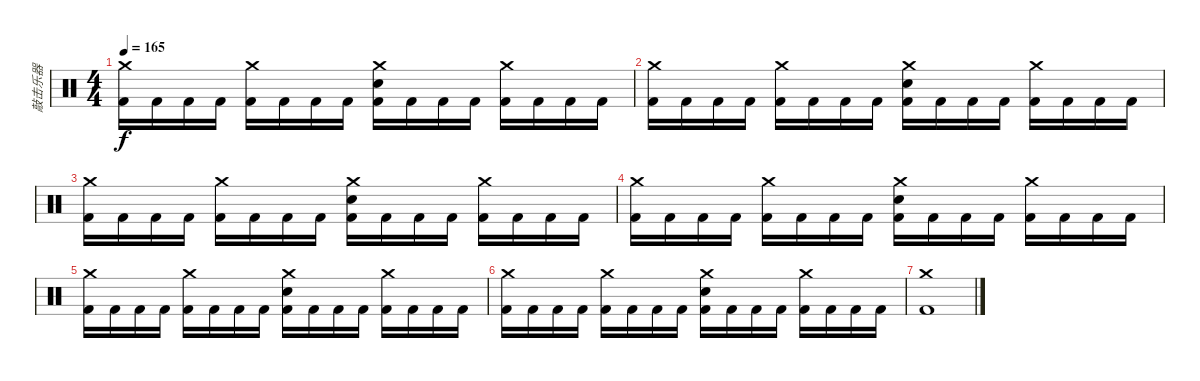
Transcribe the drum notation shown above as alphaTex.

\track ("敲击乐器" "敲击乐器") {instrument percussion}
\staff {score}
\articulation defaults
\ts (4 4)
\tempo 165
\clef neutral
\ks c
("Crash medium (hit)" "Kick (hit) 2").16{dy f} "Kick (hit) 2".16 "Kick (hit) 2".16 "Kick (hit) 2".16 ("Crash medium (hit)" "Kick (hit) 2").16 "Kick (hit) 2".16 "Kick (hit) 2".16 "Kick (hit) 2".16 ("Crash medium (hit)" "Kick (hit) 2" "Snare (hit) 2").16 "Kick (hit) 2".16 "Kick (hit) 2".16 "Kick (hit) 2".16 ("Crash medium (hit)" "Kick (hit) 2").16 "Kick (hit) 2".16 "Kick (hit) 2".16 "Kick (hit) 2".16 |
("Crash medium (hit)" "Kick (hit) 2").16 "Kick (hit) 2".16 "Kick (hit) 2".16 "Kick (hit) 2".16 ("Crash medium (hit)" "Kick (hit) 2").16 "Kick (hit) 2".16 "Kick (hit) 2".16 "Kick (hit) 2".16 ("Crash medium (hit)" "Kick (hit) 2" "Snare (hit) 2").16 "Kick (hit) 2".16 "Kick (hit) 2".16 "Kick (hit) 2".16 ("Crash medium (hit)" "Kick (hit) 2").16 "Kick (hit) 2".16 "Kick (hit) 2".16 "Kick (hit) 2".16 |
("Crash medium (hit)" "Kick (hit) 2").16 "Kick (hit) 2".16 "Kick (hit) 2".16 "Kick (hit) 2".16 ("Crash medium (hit)" "Kick (hit) 2").16 "Kick (hit) 2".16 "Kick (hit) 2".16 "Kick (hit) 2".16 ("Crash medium (hit)" "Kick (hit) 2" "Snare (hit) 2").16 "Kick (hit) 2".16 "Kick (hit) 2".16 "Kick (hit) 2".16 ("Crash medium (hit)" "Kick (hit) 2").16 "Kick (hit) 2".16 "Kick (hit) 2".16 "Kick (hit) 2".16 |
("Crash medium (hit)" "Kick (hit) 2").16 "Kick (hit) 2".16 "Kick (hit) 2".16 "Kick (hit) 2".16 ("Crash medium (hit)" "Kick (hit) 2").16 "Kick (hit) 2".16 "Kick (hit) 2".16 "Kick (hit) 2".16 ("Crash medium (hit)" "Kick (hit) 2" "Snare (hit) 2").16 "Kick (hit) 2".16 "Kick (hit) 2".16 "Kick (hit) 2".16 ("Crash medium (hit)" "Kick (hit) 2").16 "Kick (hit) 2".16 "Kick (hit) 2".16 "Kick (hit) 2".16 |
("Crash medium (hit)" "Kick (hit) 2").16 "Kick (hit) 2".16 "Kick (hit) 2".16 "Kick (hit) 2".16 ("Crash medium (hit)" "Kick (hit) 2").16 "Kick (hit) 2".16 "Kick (hit) 2".16 "Kick (hit) 2".16 ("Crash medium (hit)" "Kick (hit) 2" "Snare (hit) 2").16 "Kick (hit) 2".16 "Kick (hit) 2".16 "Kick (hit) 2".16 ("Crash medium (hit)" "Kick (hit) 2").16 "Kick (hit) 2".16 "Kick (hit) 2".16 "Kick (hit) 2".16 |
("Crash medium (hit)" "Kick (hit) 2").16 "Kick (hit) 2".16 "Kick (hit) 2".16 "Kick (hit) 2".16 ("Crash medium (hit)" "Kick (hit) 2").16 "Kick (hit) 2".16 "Kick (hit) 2".16 "Kick (hit) 2".16 ("Crash medium (hit)" "Kick (hit) 2" "Snare (hit) 2").16 "Kick (hit) 2".16 "Kick (hit) 2".16 "Kick (hit) 2".16 ("Crash medium (hit)" "Kick (hit) 2").16 "Kick (hit) 2".16 "Kick (hit) 2".16 "Kick (hit) 2".16 |
("Kick (hit) 2" "Crash medium (hit)").1
